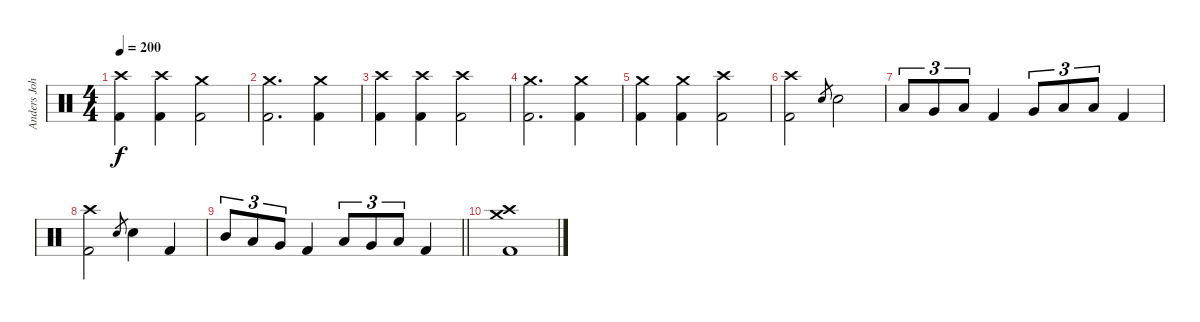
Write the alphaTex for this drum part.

\track ("Anders Johansson" "Anders Joh") {instrument percussion}
\staff {score}
\articulation defaults
\ts (4 4)
\tempo 200
\clef neutral
\ks c
("Crash high (hit)" "Kick (hit) 2").4{dy f} ("Crash high (hit)" "Kick (hit) 2").4 ("Crash medium (hit)" "Kick (hit) 2").2 |
("Crash medium (hit)" "Kick (hit) 2").2{d} ("Crash medium (hit)" "Kick (hit) 2").4 |
("Crash high (hit)" "Kick (hit) 2").4 ("Crash high (hit)" "Kick (hit) 2").4 ("Crash high (hit)" "Kick (hit) 2").2 |
("Crash medium (hit)" "Kick (hit) 2").2{d} ("Crash medium (hit)" "Kick (hit) 2").4 |
("Crash medium (hit)" "Kick (hit) 2").4 ("Crash medium (hit)" "Kick (hit) 2").4 ("Crash high (hit)" "Kick (hit) 2").2 |
("Crash high (hit)" "Kick (hit) 2").2 "Snare (hit) 2".8{gr} "Snare (hit) 2".2 |
"Low Tom (hit)".8{tu (3 2)} "Very Low Tom (hit)".8{tu (3 2)} "Low Floor Tom (hit)".8{tu (3 2)} "Kick (hit) 2".4 "Very Low Tom (hit)".8{tu (3 2)} "Low Floor Tom (hit)".8{tu (3 2)} "Low Floor Tom (hit)".8{tu (3 2)} "Kick (hit) 2".4 |
("Crash high (hit)" "Kick (hit) 2").2 "Snare (hit) 2".8{gr} "Snare (hit) 2".4 "Kick (hit) 2".4 |
\barLineRight lightlight "Mid Tom (hit)".8{tu (3 2)} "Low Tom (hit)".8{tu (3 2)} "Very Low Tom (hit)".8{tu (3 2)} "Kick (hit) 2".4 "Low Tom (hit)".8{tu (3 2)} "Very Low Tom (hit)".8{tu (3 2)} "Low Floor Tom (hit)".8{tu (3 2)} "Kick (hit) 2".4
|
("Crash medium (hit)" "Crash high (hit)" "Kick (hit) 2").1
